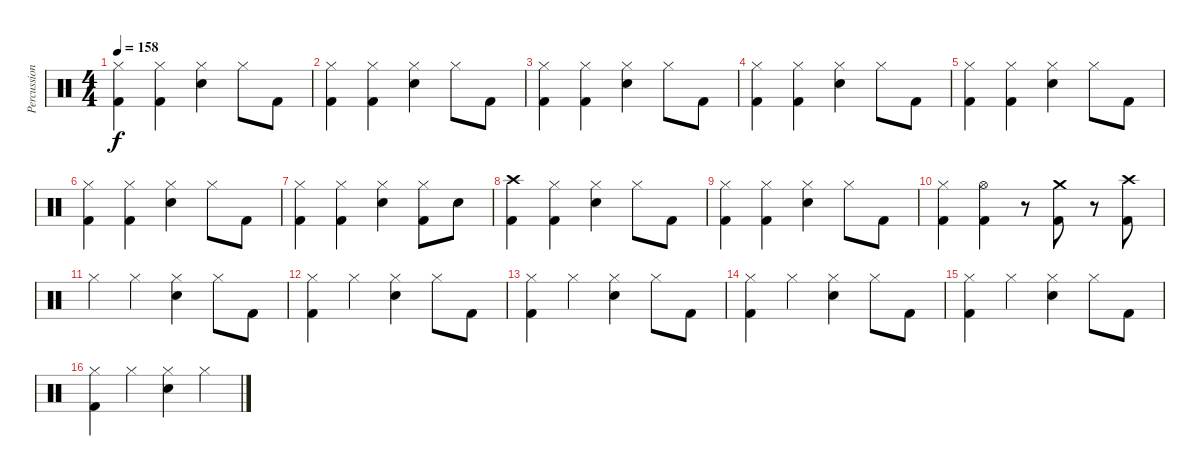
\track ("Percussions" "Percussion") {instrument percussion}
\staff {score}
\articulation defaults
\ts (4 4)
\tempo 158
\clef neutral
\ks c
("Hi-Hat (closed)" "Kick (hit) 2").4{dy f} ("Hi-Hat (closed)" "Kick (hit) 2").4 ("Hi-Hat (closed)" "Snare (hit) 2").4 "Hi-Hat (closed)".8 "Kick (hit) 2".8 |
("Hi-Hat (closed)" "Kick (hit) 2").4 ("Hi-Hat (closed)" "Kick (hit) 2").4 ("Hi-Hat (closed)" "Snare (hit) 2").4 "Hi-Hat (closed)".8 "Kick (hit) 2".8 |
("Hi-Hat (closed)" "Kick (hit) 2").4 ("Hi-Hat (closed)" "Kick (hit) 2").4 ("Hi-Hat (closed)" "Snare (hit) 2").4 "Hi-Hat (closed)".8 "Kick (hit) 2".8 |
("Hi-Hat (closed)" "Kick (hit) 2").4 ("Hi-Hat (closed)" "Kick (hit) 2").4 ("Hi-Hat (closed)" "Snare (hit) 2").4 "Hi-Hat (closed)".8 "Kick (hit) 2".8 |
("Hi-Hat (closed)" "Kick (hit) 2").4 ("Hi-Hat (closed)" "Kick (hit) 2").4 ("Hi-Hat (closed)" "Snare (hit) 2").4 "Hi-Hat (closed)".8 "Kick (hit) 2".8 |
("Hi-Hat (closed)" "Kick (hit) 2").4 ("Hi-Hat (closed)" "Kick (hit) 2").4 ("Hi-Hat (closed)" "Snare (hit) 2").4 "Hi-Hat (closed)".8 "Kick (hit) 2".8 |
("Hi-Hat (closed)" "Kick (hit) 2").4 ("Hi-Hat (closed)" "Kick (hit) 2").4 ("Hi-Hat (closed)" "Snare (hit) 2").4 ("Hi-Hat (closed)" "Kick (hit) 2").8 "Snare (hit) 2".8 |
("Crash high (hit)" "Kick (hit) 2").4 ("Hi-Hat (closed)" "Kick (hit) 2").4 ("Hi-Hat (closed)" "Snare (hit) 2").4 "Hi-Hat (closed)".8 "Kick (hit) 2".8 |
("Hi-Hat (closed)" "Kick (hit) 2").4 ("Hi-Hat (closed)" "Kick (hit) 2").4 ("Hi-Hat (closed)" "Snare (hit) 2").4 "Hi-Hat (closed)".8 "Kick (hit) 2".8 |
("Hi-Hat (closed)" "Kick (hit) 2").4 ("Hi-Hat (open)" "Kick (hit) 2").4 r.8 ("Crash medium (hit)" "Kick (hit) 2").8 r.8 ("Crash high (hit)" "Kick (hit) 2").8 |
"Hi-Hat (closed)".4 "Hi-Hat (closed)".4 ("Hi-Hat (closed)" "Snare (hit) 2").4 "Hi-Hat (closed)".8 "Kick (hit) 2".8 |
("Hi-Hat (closed)" "Kick (hit) 2").4 "Hi-Hat (closed)".4 ("Hi-Hat (closed)" "Snare (hit) 2").4 "Hi-Hat (closed)".8 "Kick (hit) 2".8 |
("Hi-Hat (closed)" "Kick (hit) 2").4 "Hi-Hat (closed)".4 ("Hi-Hat (closed)" "Snare (hit) 2").4 "Hi-Hat (closed)".8 "Kick (hit) 2".8 |
("Hi-Hat (closed)" "Kick (hit) 2").4 "Hi-Hat (closed)".4 ("Hi-Hat (closed)" "Snare (hit) 2").4 "Hi-Hat (closed)".8 "Kick (hit) 2".8 |
("Hi-Hat (closed)" "Kick (hit) 2").4 "Hi-Hat (closed)".4 ("Hi-Hat (closed)" "Snare (hit) 2").4 "Hi-Hat (closed)".8 "Kick (hit) 2".8 |
("Hi-Hat (closed)" "Kick (hit) 2").4 "Hi-Hat (closed)".4 ("Hi-Hat (closed)" "Snare (hit) 2").4 "Hi-Hat (closed)".4
